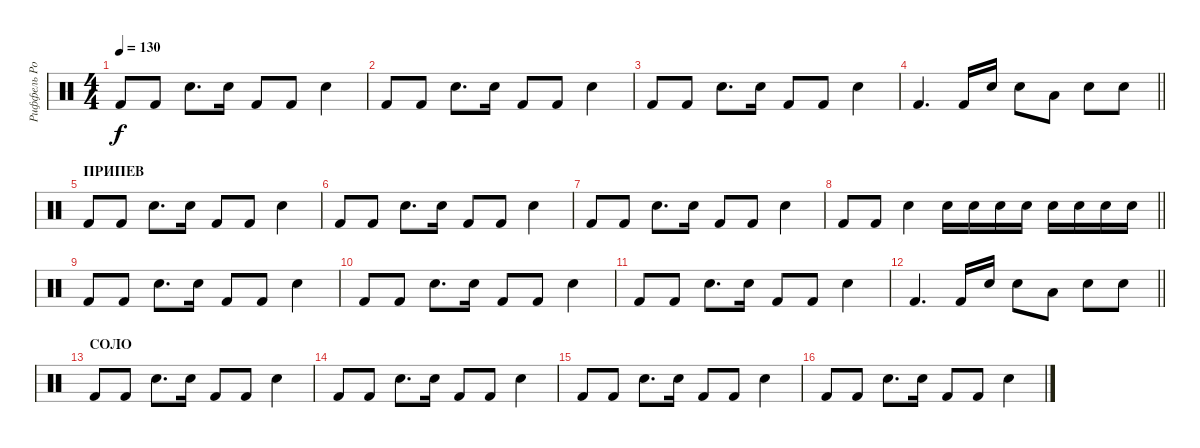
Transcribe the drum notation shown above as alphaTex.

\track ("Риффель Роман(Главные)" "Риффель Ро") {instrument percussion}
\staff {score}
\articulation defaults
\ts (4 4)
\tempo 130
\clef neutral
\ks c "Kick (hit) 2".8{dy f} "Kick (hit) 2".8 "Electric Snare (hit)".8{d} "Electric Snare (hit)".16 "Kick (hit) 2".8 "Kick (hit) 2".8 "Electric Snare (hit)".4
|
"Kick (hit) 2".8 "Kick (hit) 2".8 "Electric Snare (hit)".8{d} "Electric Snare (hit)".16 "Kick (hit) 2".8 "Kick (hit) 2".8 "Electric Snare (hit)".4 |
"Kick (hit) 2".8 "Kick (hit) 2".8 "Electric Snare (hit)".8{d} "Electric Snare (hit)".16 "Kick (hit) 2".8 "Kick (hit) 2".8 "Electric Snare (hit)".4 |
\barLineRight lightlight "Kick (hit) 2".4{d} "Kick (hit) 2".16 "Electric Snare (hit)".16 "Electric Snare (hit)".8 "Low Tom (hit)".8 "Electric Snare (hit)".8 "Electric Snare (hit)".8
|
\section ("" "ПРИПЕВ")
"Kick (hit) 2".8 "Kick (hit) 2".8 "Electric Snare (hit)".8{d} "Electric Snare (hit)".16 "Kick (hit) 2".8 "Kick (hit) 2".8 "Electric Snare (hit)".4 |
"Kick (hit) 2".8 "Kick (hit) 2".8 "Electric Snare (hit)".8{d} "Electric Snare (hit)".16 "Kick (hit) 2".8 "Kick (hit) 2".8 "Electric Snare (hit)".4 |
"Kick (hit) 2".8 "Kick (hit) 2".8 "Electric Snare (hit)".8{d} "Electric Snare (hit)".16 "Kick (hit) 2".8 "Kick (hit) 2".8 "Electric Snare (hit)".4 |
\barLineRight lightlight "Kick (hit) 2".8 "Kick (hit) 2".8 "Electric Snare (hit)".4 "Electric Snare (hit)".16 "Electric Snare (hit)".16 "Electric Snare (hit)".16 "Electric Snare (hit)".16 "Electric Snare (hit)".16 "Electric Snare (hit)".16 "Electric Snare (hit)".16 "Electric Snare (hit)".16
|
"Kick (hit) 2".8 "Kick (hit) 2".8 "Electric Snare (hit)".8{d} "Electric Snare (hit)".16 "Kick (hit) 2".8 "Kick (hit) 2".8 "Electric Snare (hit)".4 |
"Kick (hit) 2".8 "Kick (hit) 2".8 "Electric Snare (hit)".8{d} "Electric Snare (hit)".16 "Kick (hit) 2".8 "Kick (hit) 2".8 "Electric Snare (hit)".4 |
"Kick (hit) 2".8 "Kick (hit) 2".8 "Electric Snare (hit)".8{d} "Electric Snare (hit)".16 "Kick (hit) 2".8 "Kick (hit) 2".8 "Electric Snare (hit)".4 |
\barLineRight lightlight "Kick (hit) 2".4{d} "Kick (hit) 2".16 "Electric Snare (hit)".16 "Electric Snare (hit)".8 "Low Tom (hit)".8 "Electric Snare (hit)".8 "Electric Snare (hit)".8
|
\section ("" "СОЛО")
"Kick (hit) 2".8 "Kick (hit) 2".8 "Electric Snare (hit)".8{d} "Electric Snare (hit)".16 "Kick (hit) 2".8 "Kick (hit) 2".8 "Electric Snare (hit)".4 |
"Kick (hit) 2".8 "Kick (hit) 2".8 "Electric Snare (hit)".8{d} "Electric Snare (hit)".16 "Kick (hit) 2".8 "Kick (hit) 2".8 "Electric Snare (hit)".4 |
"Kick (hit) 2".8 "Kick (hit) 2".8 "Electric Snare (hit)".8{d} "Electric Snare (hit)".16 "Kick (hit) 2".8 "Kick (hit) 2".8 "Electric Snare (hit)".4 |
"Kick (hit) 2".8 "Kick (hit) 2".8 "Electric Snare (hit)".8{d} "Electric Snare (hit)".16 "Kick (hit) 2".8 "Kick (hit) 2".8 "Electric Snare (hit)".4
